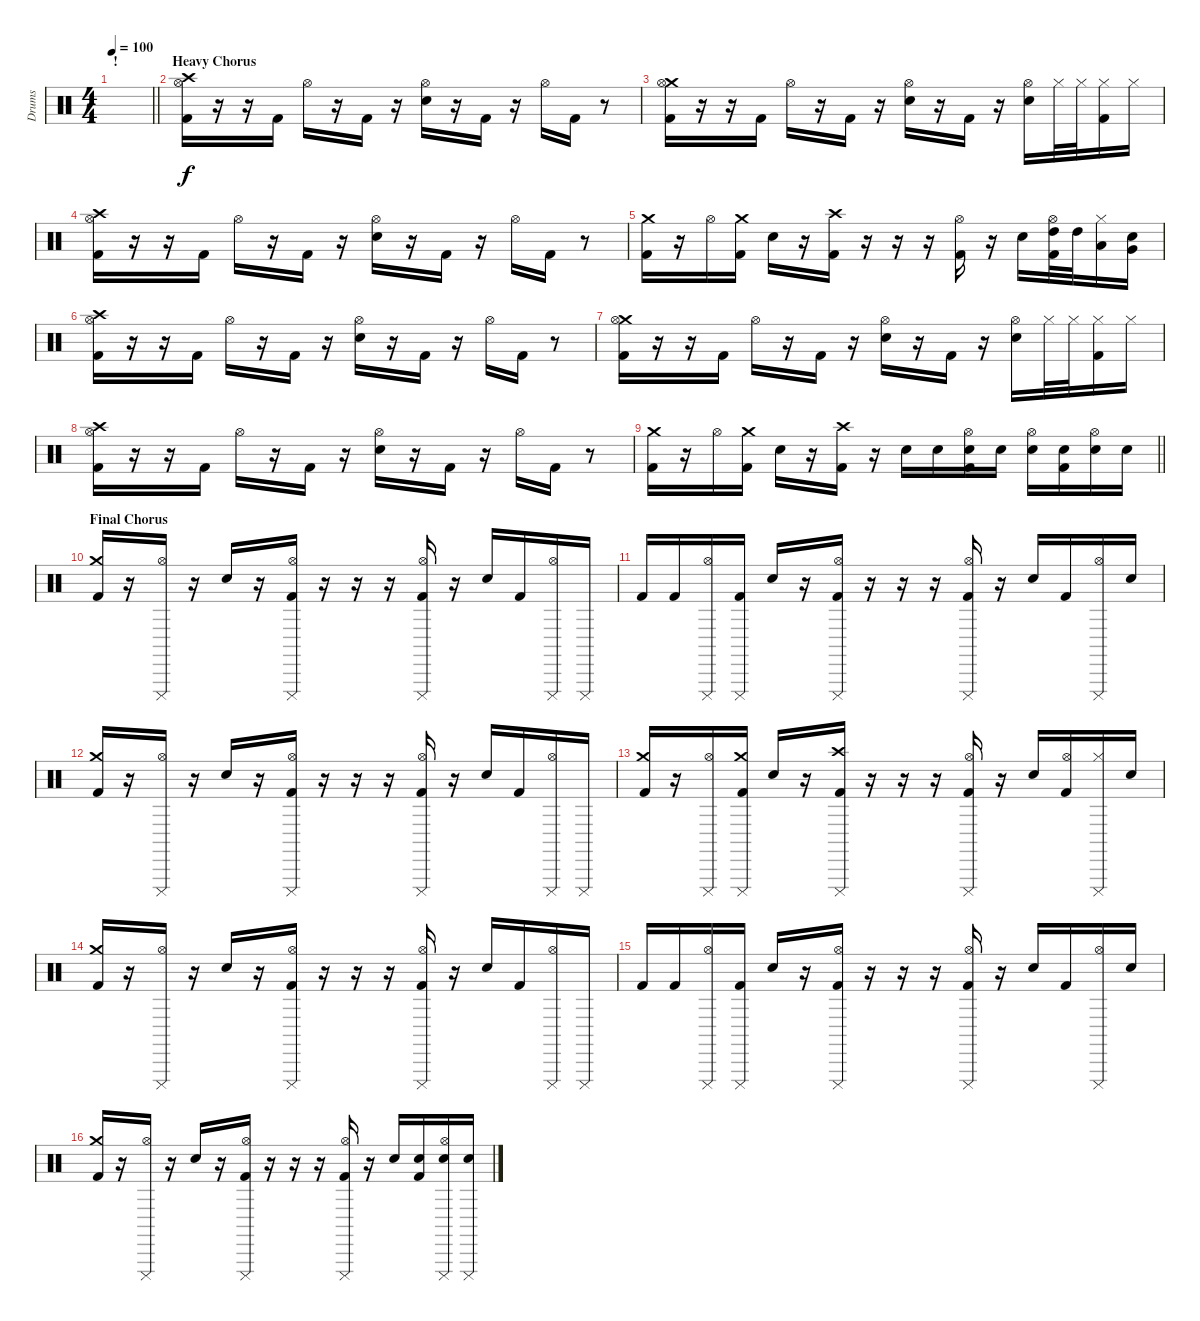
\track ("Drums" "Drums") {instrument percussion}
\staff {score}
\articulation defaults
\ts (4 4)
\section ("" "!")
\tempo 100
\clef neutral
\barLineRight lightlight
\ks c
|
\section ("" "Heavy Chorus")
("Crash high (hit)" "Hi-Hat (open)" "Kick (hit) 2").16 r.16 r.16 "Kick (hit) 2".16 "Hi-Hat (open)".16 r.16 "Kick (hit) 2".16 r.16 ("Hi-Hat (open)" "Snare (hit) 2").16 r.16 "Kick (hit) 2".16 r.16 "Hi-Hat (open)".16 "Kick (hit) 2".16 r.8 |
("Crash medium (hit)" "Hi-Hat (open)" "Kick (hit) 2").16 r.16 r.16 "Kick (hit) 2".16 "Hi-Hat (open)".16 r.16 "Kick (hit) 2".16 r.16 ("Hi-Hat (open)" "Snare (hit) 2").16 r.16 "Kick (hit) 2".16 r.16 ("Hi-Hat (open)" "Snare (hit) 2").16 "Hi-Hat (closed)".32 "Hi-Hat (closed)".32 ("Hi-Hat (closed)" "Kick (hit) 2").16 "Hi-Hat (closed)".16 |
("Crash high (hit)" "Hi-Hat (open)" "Kick (hit) 2").16 r.16 r.16 "Kick (hit) 2".16 "Hi-Hat (open)".16 r.16 "Kick (hit) 2".16 r.16 ("Hi-Hat (open)" "Snare (hit) 2").16 r.16 "Kick (hit) 2".16 r.16 "Hi-Hat (open)".16 "Kick (hit) 2".16 r.8 |
("Crash medium (hit)" "Kick (hit) 2").16 r.16 "Hi-Hat (open)".16 ("Crash medium (hit)" "Kick (hit) 2").16 "Snare (hit) 2".16 r.16 ("Crash high (hit)" "Kick (hit) 2").16 r.16 r.16 r.16 ("Hi-Hat (open)" "Kick (hit) 2").16 r.16 "Snare (hit) 2".16 ("Hi-Hat (open)" "High Tom (hit)" "Kick (hit) 2").32 "High Tom (hit)".32 ("Hi-Hat (closed)" "Low Tom (hit)").16 ("Very Low Tom (hit)" "Snare (hit) 2").16 |
("Crash high (hit)" "Hi-Hat (open)" "Kick (hit) 2").16 r.16 r.16 "Kick (hit) 2".16 "Hi-Hat (open)".16 r.16 "Kick (hit) 2".16 r.16 ("Hi-Hat (open)" "Snare (hit) 2").16 r.16 "Kick (hit) 2".16 r.16 "Hi-Hat (open)".16 "Kick (hit) 2".16 r.8 |
("Crash medium (hit)" "Hi-Hat (open)" "Kick (hit) 2").16 r.16 r.16 "Kick (hit) 2".16 "Hi-Hat (open)".16 r.16 "Kick (hit) 2".16 r.16 ("Hi-Hat (open)" "Snare (hit) 2").16 r.16 "Kick (hit) 2".16 r.16 ("Hi-Hat (open)" "Snare (hit) 2").16 "Hi-Hat (closed)".32 "Hi-Hat (closed)".32 ("Hi-Hat (closed)" "Kick (hit) 2").16 "Hi-Hat (closed)".16 |
("Crash high (hit)" "Hi-Hat (open)" "Kick (hit) 2").16 r.16 r.16 "Kick (hit) 2".16 "Hi-Hat (open)".16 r.16 "Kick (hit) 2".16 r.16 ("Hi-Hat (open)" "Snare (hit) 2").16 r.16 "Kick (hit) 2".16 r.16 "Hi-Hat (open)".16 "Kick (hit) 2".16 r.8 |
\barLineRight lightlight
("Crash medium (hit)" "Kick (hit) 2").16 r.16 "Hi-Hat (open)".16 ("Crash medium (hit)" "Kick (hit) 2").16 "Snare (hit) 2".16 r.16 ("Crash high (hit)" "Kick (hit) 2").16 r.16 "Snare (hit) 2".16 "Snare (hit) 2".16 ("Hi-Hat (open)" "Snare (hit) 2" "Kick (hit) 2").16 "Snare (hit) 2".16 ("Hi-Hat (open)" "Snare (hit) 2").16 ("Snare (hit) 2" "Kick (hit) 2").16 ("Hi-Hat (open)" "Snare (hit) 2").16 "Snare (hit) 2".16 |
\section ("" "Final Chorus")
("Crash medium (hit)" "Kick (hit) 2").16 r.16 ("Cuica (mute)" "Hi-Hat (open)").16 r.16 "Snare (hit) 2".16 r.16 ("Cuica (mute)" "Hi-Hat (open)" "Kick (hit) 2").16 r.16 r.16 r.16 ("Cuica (mute)" "Hi-Hat (open)" "Kick (hit) 2").16 r.16 "Snare (hit) 2".16 "Kick (hit) 2".16 ("Cuica (mute)" "Hi-Hat (open)").16 "Cuica (mute)".16 |
"Kick (hit) 2".16 "Kick (hit) 2".16 ("Cuica (mute)" "Hi-Hat (open)").16 ("Cuica (mute)" "Kick (hit) 2").16 "Snare (hit) 2".16 r.16 ("Cuica (mute)" "Hi-Hat (open)" "Kick (hit) 2").16 r.16 r.16 r.16 ("Cuica (mute)" "Hi-Hat (open)" "Kick (hit) 2").16 r.16 "Snare (hit) 2".16 "Kick (hit) 2".16 ("Cuica (mute)" "Hi-Hat (open)").16 "Snare (hit) 2".16 |
("Crash medium (hit)" "Kick (hit) 2").16 r.16 ("Cuica (mute)" "Hi-Hat (open)").16 r.16 "Snare (hit) 2".16 r.16 ("Cuica (mute)" "Hi-Hat (open)" "Kick (hit) 2").16 r.16 r.16 r.16 ("Cuica (mute)" "Hi-Hat (open)" "Kick (hit) 2").16 r.16 "Snare (hit) 2".16 "Kick (hit) 2".16 ("Cuica (mute)" "Hi-Hat (open)").16 "Cuica (mute)".16 |
("Crash medium (hit)" "Kick (hit) 2").16 r.16 ("Cuica (mute)" "Hi-Hat (open)").16 ("Cuica (mute)" "Crash medium (hit)" "Kick (hit) 2").16 "Snare (hit) 2".16 r.16 ("Cuica (mute)" "Crash high (hit)" "Kick (hit) 2").16 r.16 r.16 r.16 ("Cuica (mute)" "Hi-Hat (open)" "Kick (hit) 2").16 r.16 "Snare (hit) 2".16 ("Hi-Hat (open)" "Kick (hit) 2").16 ("Cuica (mute)" "Hi-Hat (closed)").16 "Snare (hit) 2".16 |
("Crash medium (hit)" "Kick (hit) 2").16 r.16 ("Cuica (mute)" "Hi-Hat (open)").16 r.16 "Snare (hit) 2".16 r.16 ("Cuica (mute)" "Hi-Hat (open)" "Kick (hit) 2").16 r.16 r.16 r.16 ("Cuica (mute)" "Hi-Hat (open)" "Kick (hit) 2").16 r.16 "Snare (hit) 2".16 "Kick (hit) 2".16 ("Cuica (mute)" "Hi-Hat (open)").16 "Cuica (mute)".16 |
"Kick (hit) 2".16 "Kick (hit) 2".16 ("Cuica (mute)" "Hi-Hat (open)").16 ("Cuica (mute)" "Kick (hit) 2").16 "Snare (hit) 2".16 r.16 ("Cuica (mute)" "Hi-Hat (open)" "Kick (hit) 2").16 r.16 r.16 r.16 ("Cuica (mute)" "Hi-Hat (open)" "Kick (hit) 2").16 r.16 "Snare (hit) 2".16 "Kick (hit) 2".16 ("Cuica (mute)" "Hi-Hat (open)").16 "Snare (hit) 2".16 |
("Crash medium (hit)" "Kick (hit) 2").16 r.16 ("Cuica (mute)" "Hi-Hat (open)").16 r.16 "Snare (hit) 2".16 r.16 ("Cuica (mute)" "Hi-Hat (open)" "Kick (hit) 2").16 r.16 r.16 r.16 ("Cuica (mute)" "Hi-Hat (open)" "Kick (hit) 2").16 r.16 "Snare (hit) 2".16 ("Snare (hit) 2" "Kick (hit) 2").16 ("Cuica (mute)" "Hi-Hat (open)" "Snare (hit) 2").16 ("Cuica (mute)" "Snare (hit) 2").16
